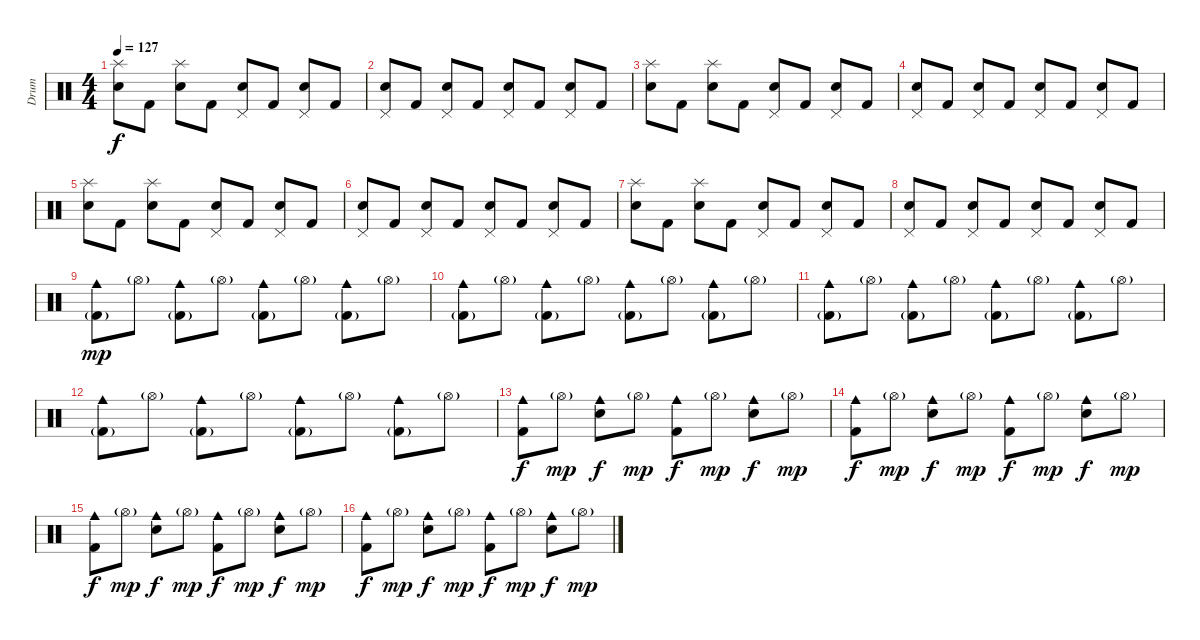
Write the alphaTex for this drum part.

\track ("Drum" "Drum") {instrument percussion}
\staff {score}
\articulation defaults
\ts (4 4)
\tempo 127
\clef neutral
\ks c
("Electric Snare (hit)" "Splash (hit)").8{dy f} "Kick (hit) 2".8 ("Electric Snare (hit)" "Splash (hit)").8 "Kick (hit) 2".8 ("Electric Snare (hit)" "Pedal Hi-Hat (hit)").8 "Kick (hit) 2".8 ("Electric Snare (hit)" "Pedal Hi-Hat (hit)").8 "Kick (hit) 2".8 |
("Electric Snare (hit)" "Pedal Hi-Hat (hit)").8 "Kick (hit) 2".8 ("Electric Snare (hit)" "Pedal Hi-Hat (hit)").8 "Kick (hit) 2".8 ("Electric Snare (hit)" "Pedal Hi-Hat (hit)").8 "Kick (hit) 2".8 ("Electric Snare (hit)" "Pedal Hi-Hat (hit)").8 "Kick (hit) 2".8 |
("Electric Snare (hit)" "Splash (hit)").8 "Kick (hit) 2".8 ("Electric Snare (hit)" "Splash (hit)").8 "Kick (hit) 2".8 ("Electric Snare (hit)" "Pedal Hi-Hat (hit)").8 "Kick (hit) 2".8 ("Electric Snare (hit)" "Pedal Hi-Hat (hit)").8 "Kick (hit) 2".8 |
("Electric Snare (hit)" "Pedal Hi-Hat (hit)").8 "Kick (hit) 2".8 ("Electric Snare (hit)" "Pedal Hi-Hat (hit)").8 "Kick (hit) 2".8 ("Electric Snare (hit)" "Pedal Hi-Hat (hit)").8 "Kick (hit) 2".8 ("Electric Snare (hit)" "Pedal Hi-Hat (hit)").8 "Kick (hit) 2".8 |
("Electric Snare (hit)" "Splash (hit)").8 "Kick (hit) 2".8 ("Electric Snare (hit)" "Splash (hit)").8 "Kick (hit) 2".8 ("Electric Snare (hit)" "Pedal Hi-Hat (hit)").8 "Kick (hit) 2".8 ("Electric Snare (hit)" "Pedal Hi-Hat (hit)").8 "Kick (hit) 2".8 |
("Electric Snare (hit)" "Pedal Hi-Hat (hit)").8 "Kick (hit) 2".8 ("Electric Snare (hit)" "Pedal Hi-Hat (hit)").8 "Kick (hit) 2".8 ("Electric Snare (hit)" "Pedal Hi-Hat (hit)").8 "Kick (hit) 2".8 ("Electric Snare (hit)" "Pedal Hi-Hat (hit)").8 "Kick (hit) 2".8 |
("Electric Snare (hit)" "Splash (hit)").8 "Kick (hit) 2".8 ("Electric Snare (hit)" "Splash (hit)").8 "Kick (hit) 2".8 ("Electric Snare (hit)" "Pedal Hi-Hat (hit)").8 "Kick (hit) 2".8 ("Electric Snare (hit)" "Pedal Hi-Hat (hit)").8 "Kick (hit) 2".8 |
("Electric Snare (hit)" "Pedal Hi-Hat (hit)").8 "Kick (hit) 2".8 ("Electric Snare (hit)" "Pedal Hi-Hat (hit)").8 "Kick (hit) 2".8 ("Electric Snare (hit)" "Pedal Hi-Hat (hit)").8 "Kick (hit) 2".8 ("Electric Snare (hit)" "Pedal Hi-Hat (hit)").8 "Kick (hit) 2".8 |
("Kick (hit) 2"{g} "Cowbell medium (hit)").8{dy mp} "Hi-Hat (open)"{g}.8 ("Kick (hit) 2"{g} "Cowbell medium (hit)").8 "Hi-Hat (open)"{g}.8 ("Kick (hit) 2"{g} "Cowbell medium (hit)").8 "Hi-Hat (open)"{g}.8 ("Kick (hit) 2"{g} "Cowbell medium (hit)").8 "Hi-Hat (open)"{g}.8 |
("Kick (hit) 2"{g} "Cowbell medium (hit)").8 "Hi-Hat (open)"{g}.8 ("Kick (hit) 2"{g} "Cowbell medium (hit)").8 "Hi-Hat (open)"{g}.8 ("Kick (hit) 2"{g} "Cowbell medium (hit)").8 "Hi-Hat (open)"{g}.8 ("Kick (hit) 2"{g} "Cowbell medium (hit)").8 "Hi-Hat (open)"{g}.8 |
("Kick (hit) 2"{g} "Cowbell medium (hit)").8 "Hi-Hat (open)"{g}.8 ("Kick (hit) 2"{g} "Cowbell medium (hit)").8 "Hi-Hat (open)"{g}.8 ("Kick (hit) 2"{g} "Cowbell medium (hit)").8 "Hi-Hat (open)"{g}.8 ("Kick (hit) 2"{g} "Cowbell medium (hit)").8 "Hi-Hat (open)"{g}.8 |
("Kick (hit) 2"{g} "Cowbell medium (hit)").8 "Hi-Hat (open)"{g}.8 ("Kick (hit) 2"{g} "Cowbell medium (hit)").8 "Hi-Hat (open)"{g}.8 ("Kick (hit) 2"{g} "Cowbell medium (hit)").8 "Hi-Hat (open)"{g}.8 ("Kick (hit) 2"{g} "Cowbell medium (hit)").8 "Hi-Hat (open)"{g}.8 |
("Kick (hit) 2" "Cowbell medium (hit)").8{dy f} "Hi-Hat (open)"{g}.8{dy mp} ("Electric Snare (hit)" "Cowbell medium (hit)").8{dy f} "Hi-Hat (open)"{g}.8{dy mp} ("Kick (hit) 2" "Cowbell medium (hit)").8{dy f} "Hi-Hat (open)"{g}.8{dy mp} ("Electric Snare (hit)" "Cowbell medium (hit)").8{dy f} "Hi-Hat (open)"{g}.8{dy mp} |
("Kick (hit) 2" "Cowbell medium (hit)").8{dy f} "Hi-Hat (open)"{g}.8{dy mp} ("Electric Snare (hit)" "Cowbell medium (hit)").8{dy f} "Hi-Hat (open)"{g}.8{dy mp} ("Kick (hit) 2" "Cowbell medium (hit)").8{dy f} "Hi-Hat (open)"{g}.8{dy mp} ("Electric Snare (hit)" "Cowbell medium (hit)").8{dy f} "Hi-Hat (open)"{g}.8{dy mp} |
("Kick (hit) 2" "Cowbell medium (hit)").8{dy f} "Hi-Hat (open)"{g}.8{dy mp} ("Electric Snare (hit)" "Cowbell medium (hit)").8{dy f} "Hi-Hat (open)"{g}.8{dy mp} ("Kick (hit) 2" "Cowbell medium (hit)").8{dy f} "Hi-Hat (open)"{g}.8{dy mp} ("Electric Snare (hit)" "Cowbell medium (hit)").8{dy f} "Hi-Hat (open)"{g}.8{dy mp} |
("Kick (hit) 2" "Cowbell medium (hit)").8{dy f} "Hi-Hat (open)"{g}.8{dy mp} ("Electric Snare (hit)" "Cowbell medium (hit)").8{dy f} "Hi-Hat (open)"{g}.8{dy mp} ("Kick (hit) 2" "Cowbell medium (hit)").8{dy f} "Hi-Hat (open)"{g}.8{dy mp} ("Electric Snare (hit)" "Cowbell medium (hit)").8{dy f} "Hi-Hat (open)"{g}.8{dy mp}
